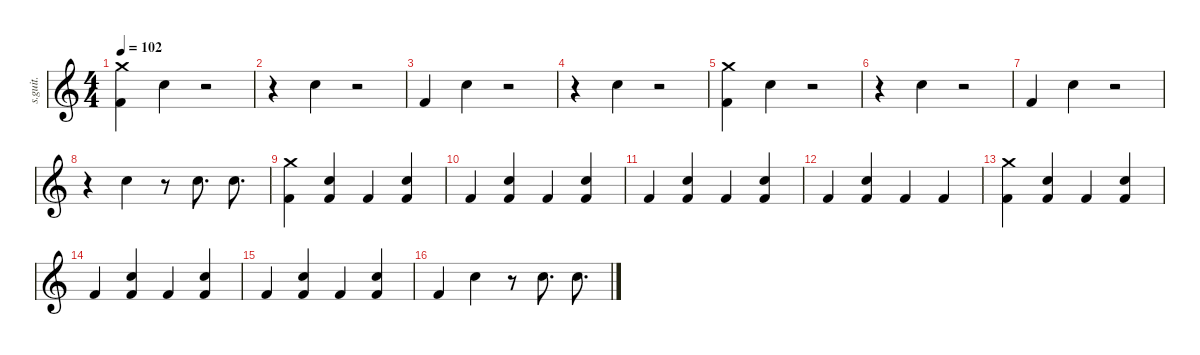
\defaultSystemsLayout 4
\hideDynamics
\bracketExtendMode nobrackets
\track ("" "s.guit.") {instrument percussion}
\staff {score}
\articulation defaults
\ts (4 4)
\tempo 102
\clef g2
\ks c
("Crash medium (hit)" "Kick (hit) 2").4{dy pp} "Electric Snare (hit)".4{dy f} r.2 |
r.4 "Electric Snare (hit)".4 r.2 |
"Kick (hit) 2".4 "Electric Snare (hit)".4 r.2 |
r.4 "Electric Snare (hit)".4 r.2 |
("Crash medium (hit)" "Kick (hit) 2").4{dy pp} "Electric Snare (hit)".4{dy f} r.2 |
r.4 "Electric Snare (hit)".4 r.2 |
"Kick (hit) 2".4 "Electric Snare (hit)".4 r.2 |
r.4 "Electric Snare (hit)".4 r.8 "Electric Snare (hit)".8{d} "Electric Snare (hit)".8{d} |
("Crash medium (hit)" "Kick (hit) 2").4{dy pp} ("Electric Snare (hit)" "Kick (hit) 2").4{dy f} "Kick (hit) 2".4 ("Electric Snare (hit)" "Kick (hit) 2").4 |
"Kick (hit) 2".4 ("Electric Snare (hit)" "Kick (hit) 2").4 "Kick (hit) 2".4 ("Electric Snare (hit)" "Kick (hit) 2").4 |
"Kick (hit) 2".4 ("Electric Snare (hit)" "Kick (hit) 2").4 "Kick (hit) 2".4 ("Electric Snare (hit)" "Kick (hit) 2").4 |
"Kick (hit) 2".4 ("Electric Snare (hit)" "Kick (hit) 2").4 "Kick (hit) 2".4 "Kick (hit) 2".4 |
("Crash medium (hit)" "Kick (hit) 2").4{dy pp} ("Electric Snare (hit)" "Kick (hit) 2").4{dy f} "Kick (hit) 2".4 ("Electric Snare (hit)" "Kick (hit) 2").4 |
"Kick (hit) 2".4 ("Electric Snare (hit)" "Kick (hit) 2").4 "Kick (hit) 2".4 ("Electric Snare (hit)" "Kick (hit) 2").4 |
"Kick (hit) 2".4 ("Electric Snare (hit)" "Kick (hit) 2").4 "Kick (hit) 2".4 ("Electric Snare (hit)" "Kick (hit) 2").4 |
"Kick (hit) 2".4 "Electric Snare (hit)".4 r.8 "Electric Snare (hit)".8{d} "Electric Snare (hit)".8{d}
